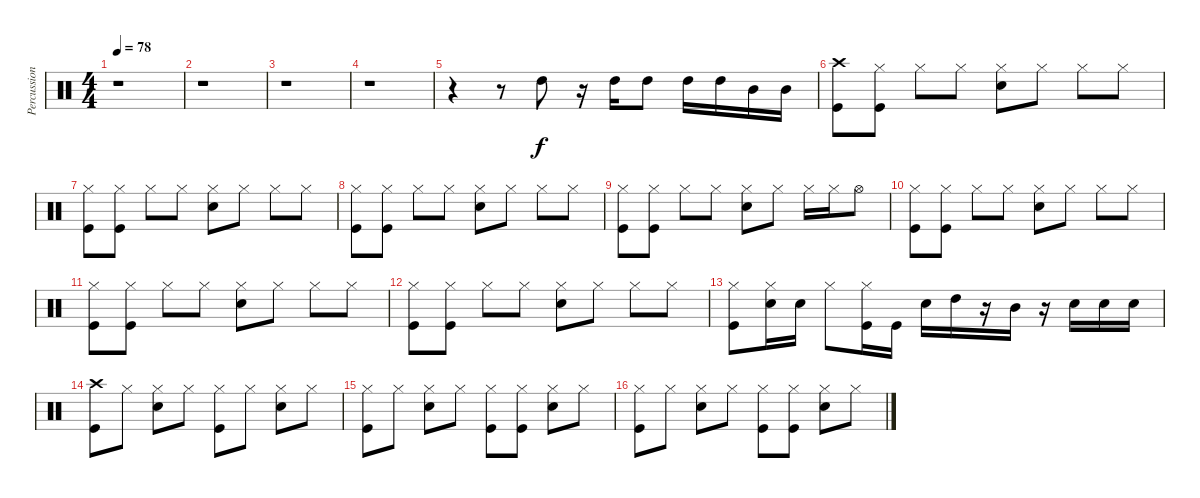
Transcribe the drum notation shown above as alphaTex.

\track ("Percussion" "Percussion") {instrument percussion}
\staff {score}
\articulation defaults
\ts (4 4)
\tempo 78
\clef neutral
\ks c
r.1{dy f} |
r.1 |
r.1 |
r.1 |
r.4 r.8 "High Tom (hit)".8 r.16 "High Tom (hit)".16 "High Tom (hit)".8 "High Tom (hit)".16 "High Tom (hit)".16 "Mid Tom (hit)".16 "Mid Tom (hit)".16 |
("Crash high (hit)" "Kick (hit)").8 ("Hi-Hat (closed)" "Kick (hit)").8 "Hi-Hat (closed)".8 "Hi-Hat (closed)".8 ("Hi-Hat (closed)" "Snare (hit) 2").8 "Hi-Hat (closed)".8 "Hi-Hat (closed)".8 "Hi-Hat (closed)".8 |
("Hi-Hat (closed)" "Kick (hit)").8 ("Hi-Hat (closed)" "Kick (hit)").8 "Hi-Hat (closed)".8 "Hi-Hat (closed)".8 ("Hi-Hat (closed)" "Snare (hit) 2").8 "Hi-Hat (closed)".8 "Hi-Hat (closed)".8 "Hi-Hat (closed)".8 |
("Hi-Hat (closed)" "Kick (hit)").8 ("Hi-Hat (closed)" "Kick (hit)").8 "Hi-Hat (closed)".8 "Hi-Hat (closed)".8 ("Hi-Hat (closed)" "Snare (hit) 2").8 "Hi-Hat (closed)".8 "Hi-Hat (closed)".8 "Hi-Hat (closed)".8 |
("Hi-Hat (closed)" "Kick (hit)").8 ("Hi-Hat (closed)" "Kick (hit)").8 "Hi-Hat (closed)".8 "Hi-Hat (closed)".8 ("Hi-Hat (closed)" "Snare (hit) 2").8 "Hi-Hat (closed)".8 "Hi-Hat (closed)".16 "Hi-Hat (closed)".16 "Hi-Hat (open)".8 |
("Hi-Hat (closed)" "Kick (hit)").8 ("Hi-Hat (closed)" "Kick (hit)").8 "Hi-Hat (closed)".8 "Hi-Hat (closed)".8 ("Hi-Hat (closed)" "Snare (hit) 2").8 "Hi-Hat (closed)".8 "Hi-Hat (closed)".8 "Hi-Hat (closed)".8 |
("Hi-Hat (closed)" "Kick (hit)").8 ("Hi-Hat (closed)" "Kick (hit)").8 "Hi-Hat (closed)".8 "Hi-Hat (closed)".8 ("Hi-Hat (closed)" "Snare (hit) 2").8 "Hi-Hat (closed)".8 "Hi-Hat (closed)".8 "Hi-Hat (closed)".8 |
("Hi-Hat (closed)" "Kick (hit)").8 ("Hi-Hat (closed)" "Kick (hit)").8 "Hi-Hat (closed)".8 "Hi-Hat (closed)".8 ("Hi-Hat (closed)" "Snare (hit) 2").8 "Hi-Hat (closed)".8 "Hi-Hat (closed)".8 "Hi-Hat (closed)".8 |
("Hi-Hat (closed)" "Kick (hit)").8 ("Hi-Hat (closed)" "Snare (hit) 2").16 "Snare (hit) 2".16 "Hi-Hat (closed)".8 ("Hi-Hat (closed)" "Kick (hit)").16 "Kick (hit)".16 "Snare (hit) 2".16 "High Tom (hit)".16 r.16 "Mid Tom (hit)".16 r.16 "Snare (hit) 2".16 "Snare (hit) 2".16 "Snare (hit) 2".16 |
("Crash high (hit)" "Kick (hit)").8 "Hi-Hat (closed)".8 ("Hi-Hat (closed)" "Snare (hit) 2").8 "Hi-Hat (closed)".8 ("Hi-Hat (closed)" "Kick (hit)").8 "Hi-Hat (closed)".8 ("Hi-Hat (closed)" "Snare (hit) 2").8 "Hi-Hat (closed)".8 |
("Hi-Hat (closed)" "Kick (hit)").8 "Hi-Hat (closed)".8 ("Hi-Hat (closed)" "Snare (hit) 2").8 "Hi-Hat (closed)".8 ("Hi-Hat (closed)" "Kick (hit)").8 ("Hi-Hat (closed)" "Kick (hit)").8 ("Hi-Hat (closed)" "Snare (hit) 2").8 "Hi-Hat (closed)".8 |
("Hi-Hat (closed)" "Kick (hit)").8 "Hi-Hat (closed)".8 ("Hi-Hat (closed)" "Snare (hit) 2").8 "Hi-Hat (closed)".8 ("Hi-Hat (closed)" "Kick (hit)").8 ("Hi-Hat (closed)" "Kick (hit)").8 ("Hi-Hat (closed)" "Snare (hit) 2").8 "Hi-Hat (closed)".8
